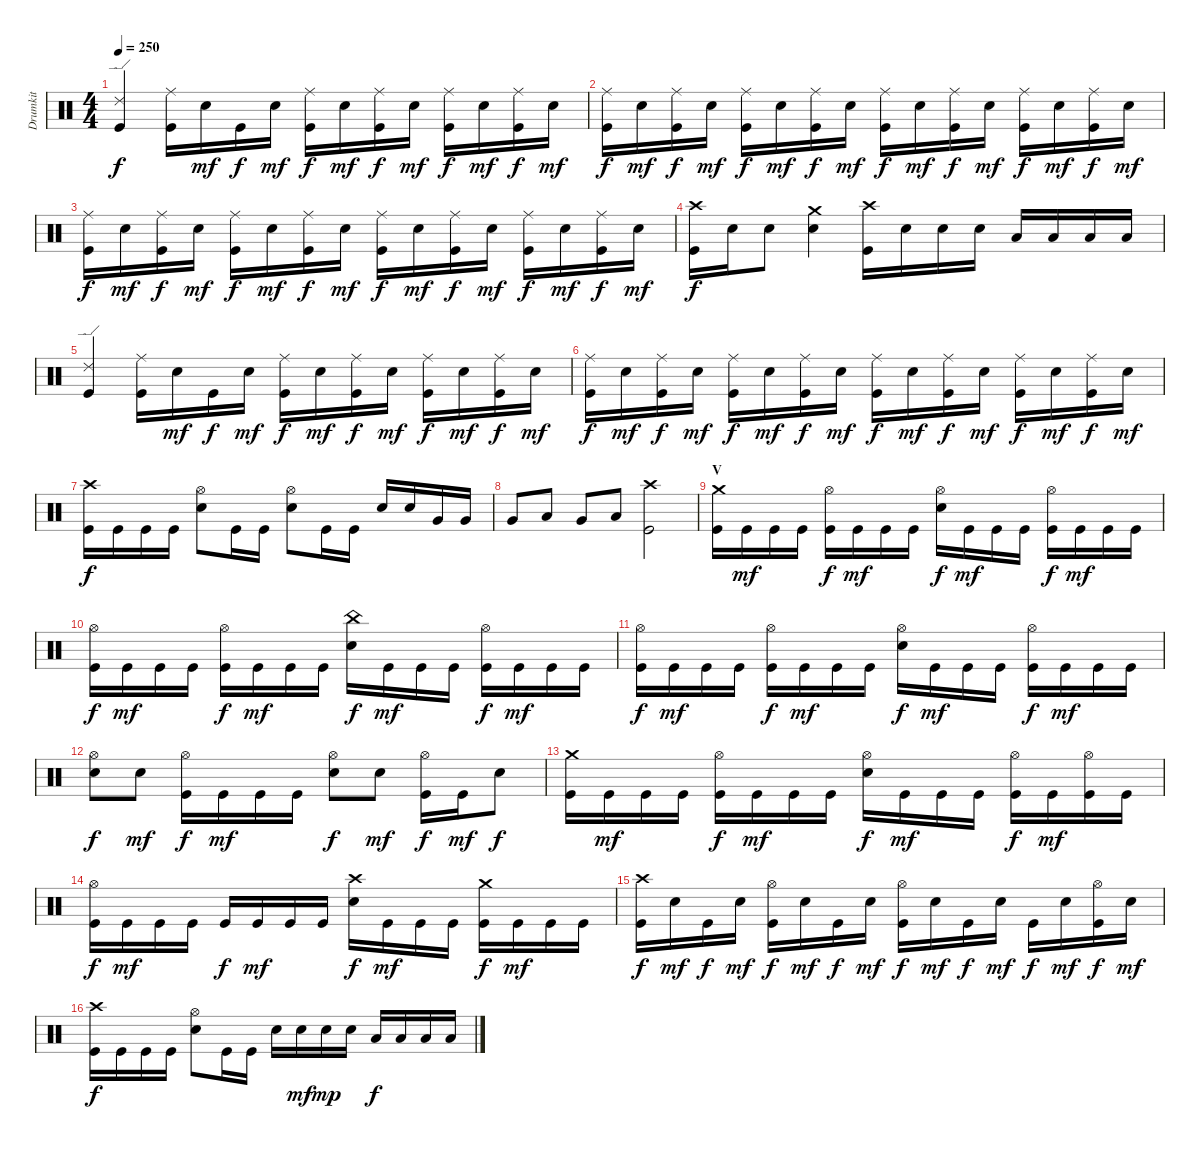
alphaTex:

\track ("Drumkit" "Drumkit") {instrument percussion}
\staff {score}
\articulation defaults
\ts (4 4)
\tempo 250
\clef neutral
\ks c
("Kick (hit)" "Ride (edge) 2").4{dy f} ("Kick (hit)" "Ride (middle)").16 "Snare (hit) 2".16{dy mf} "Kick (hit)".16{dy f} "Snare (hit) 2".16{dy mf} ("Kick (hit)" "Ride (middle)").16{dy f} "Snare (hit) 2".16{dy mf} ("Kick (hit)" "Ride (middle)").16{dy f} "Snare (hit) 2".16{dy mf} ("Kick (hit)" "Ride (middle)").16{dy f} "Snare (hit) 2".16{dy mf} ("Kick (hit)" "Ride (middle)").16{dy f} "Snare (hit) 2".16{dy mf} |
("Kick (hit)" "Ride (middle)").16{dy f} "Snare (hit) 2".16{dy mf} ("Kick (hit)" "Ride (middle)").16{dy f} "Snare (hit) 2".16{dy mf} ("Kick (hit)" "Ride (middle)").16{dy f} "Snare (hit) 2".16{dy mf} ("Kick (hit)" "Ride (middle)").16{dy f} "Snare (hit) 2".16{dy mf} ("Kick (hit)" "Ride (middle)").16{dy f} "Snare (hit) 2".16{dy mf} ("Kick (hit)" "Ride (middle)").16{dy f} "Snare (hit) 2".16{dy mf} ("Kick (hit)" "Ride (middle)").16{dy f} "Snare (hit) 2".16{dy mf} ("Kick (hit)" "Ride (middle)").16{dy f} "Snare (hit) 2".16{dy mf} |
("Kick (hit)" "Ride (middle)").16{dy f} "Snare (hit) 2".16{dy mf} ("Kick (hit)" "Ride (middle)").16{dy f} "Snare (hit) 2".16{dy mf} ("Kick (hit)" "Ride (middle)").16{dy f} "Snare (hit) 2".16{dy mf} ("Kick (hit)" "Ride (middle)").16{dy f} "Snare (hit) 2".16{dy mf} ("Kick (hit)" "Ride (middle)").16{dy f} "Snare (hit) 2".16{dy mf} ("Kick (hit)" "Ride (middle)").16{dy f} "Snare (hit) 2".16{dy mf} ("Kick (hit)" "Ride (middle)").16{dy f} "Snare (hit) 2".16{dy mf} ("Kick (hit)" "Ride (middle)").16{dy f} "Snare (hit) 2".16{dy mf} |
("Kick (hit)" "Crash high (hit)").16{dy f} "Snare (hit) 2".16 "Snare (hit) 2".8 ("Snare (hit) 2" "Crash medium (hit)").4 ("Kick (hit)" "Crash high (hit)").16 "Snare (hit) 2".16 "Snare (hit) 2".16 "Snare (hit) 2".16 "Low Tom (hit)".16 "Low Tom (hit)".16 "Low Tom (hit)".16 "Low Tom (hit)".16 |
("Kick (hit)" "Ride (edge) 2").4 ("Kick (hit)" "Ride (middle)").16 "Snare (hit) 2".16{dy mf} "Kick (hit)".16{dy f} "Snare (hit) 2".16{dy mf} ("Kick (hit)" "Ride (middle)").16{dy f} "Snare (hit) 2".16{dy mf} ("Kick (hit)" "Ride (middle)").16{dy f} "Snare (hit) 2".16{dy mf} ("Kick (hit)" "Ride (middle)").16{dy f} "Snare (hit) 2".16{dy mf} ("Kick (hit)" "Ride (middle)").16{dy f} "Snare (hit) 2".16{dy mf} |
("Kick (hit)" "Ride (middle)").16{dy f} "Snare (hit) 2".16{dy mf} ("Kick (hit)" "Ride (middle)").16{dy f} "Snare (hit) 2".16{dy mf} ("Kick (hit)" "Ride (middle)").16{dy f} "Snare (hit) 2".16{dy mf} ("Kick (hit)" "Ride (middle)").16{dy f} "Snare (hit) 2".16{dy mf} ("Kick (hit)" "Ride (middle)").16{dy f} "Snare (hit) 2".16{dy mf} ("Kick (hit)" "Ride (middle)").16{dy f} "Snare (hit) 2".16{dy mf} ("Kick (hit)" "Ride (middle)").16{dy f} "Snare (hit) 2".16{dy mf} ("Kick (hit)" "Ride (middle)").16{dy f} "Snare (hit) 2".16{dy mf} |
("Kick (hit)" "Crash high (hit)").16{dy f} "Kick (hit)".16 "Kick (hit)".16 "Kick (hit)".16 ("Snare (hit) 2" "Hi-Hat (open)").8 "Kick (hit)".16 "Kick (hit)".16 ("Snare (hit) 2" "Hi-Hat (open)").8 "Kick (hit)".16 "Kick (hit)".16 "Snare (hit) 2".16 "Snare (hit) 2".16 "Very Low Tom (hit)".16 "Very Low Tom (hit)".16 |
"Very Low Tom (hit)".8 "Low Tom (hit)".8 "Very Low Tom (hit)".8 "Low Floor Tom (hit)".8 ("Kick (hit)" "Crash high (hit)").2 |
\section ("" "V")
("Kick (hit)" "Crash medium (hit)").16 "Kick (hit)".16{dy mf} "Kick (hit)".16 "Kick (hit)".16 ("Kick (hit)" "Hi-Hat (open)").16{dy f} "Kick (hit)".16{dy mf} "Kick (hit)".16 "Kick (hit)".16 ("Snare (hit) 2" "Hi-Hat (open)").16{dy f} "Kick (hit)".16{dy mf} "Kick (hit)".16 "Kick (hit)".16 ("Kick (hit)" "Hi-Hat (open)").16{dy f} "Kick (hit)".16{dy mf} "Kick (hit)".16 "Kick (hit)".16 |
("Kick (hit)" "Hi-Hat (open)").16{dy f} "Kick (hit)".16{dy mf} "Kick (hit)".16 "Kick (hit)".16 ("Kick (hit)" "Hi-Hat (open)").16{dy f} "Kick (hit)".16{dy mf} "Kick (hit)".16 "Kick (hit)".16 ("Snare (hit) 2" "China (hit)").16{dy f} "Kick (hit)".16{dy mf} "Kick (hit)".16 "Kick (hit)".16 ("Kick (hit)" "Hi-Hat (open)").16{dy f} "Kick (hit)".16{dy mf} "Kick (hit)".16 "Kick (hit)".16 |
("Kick (hit)" "Hi-Hat (open)").16{dy f} "Kick (hit)".16{dy mf} "Kick (hit)".16 "Kick (hit)".16 ("Kick (hit)" "Hi-Hat (open)").16{dy f} "Kick (hit)".16{dy mf} "Kick (hit)".16 "Kick (hit)".16 ("Snare (hit) 2" "Hi-Hat (open)").16{dy f} "Kick (hit)".16{dy mf} "Kick (hit)".16 "Kick (hit)".16 ("Kick (hit)" "Hi-Hat (open)").16{dy f} "Kick (hit)".16{dy mf} "Kick (hit)".16 "Kick (hit)".16 |
("Snare (hit) 2" "Hi-Hat (open)").8{dy f} "Snare (hit) 2".8{dy mf} ("Kick (hit)" "Hi-Hat (open)").16{dy f} "Kick (hit)".16{dy mf} "Kick (hit)".16 "Kick (hit)".16 ("Snare (hit) 2" "Hi-Hat (open)").8{dy f} "Snare (hit) 2".8{dy mf} ("Kick (hit)" "Hi-Hat (open)").16{dy f} "Kick (hit)".16{dy mf} "Snare (hit) 2".8{dy f} |
("Kick (hit)" "Crash medium (hit)").16 "Kick (hit)".16{dy mf} "Kick (hit)".16 "Kick (hit)".16 ("Kick (hit)" "Hi-Hat (open)").16{dy f} "Kick (hit)".16{dy mf} "Kick (hit)".16 "Kick (hit)".16 ("Snare (hit) 2" "Hi-Hat (open)").16{dy f} "Kick (hit)".16{dy mf} "Kick (hit)".16 "Kick (hit)".16 ("Kick (hit)" "Hi-Hat (open)").16{dy f} "Kick (hit)".16{dy mf} ("Kick (hit)" "Hi-Hat (open)").16 "Kick (hit)".16 |
("Kick (hit)" "Hi-Hat (open)").16{dy f} "Kick (hit)".16{dy mf} "Kick (hit)".16 "Kick (hit)".16 "Kick (hit)".16{dy f} "Kick (hit)".16{dy mf} "Kick (hit)".16 "Kick (hit)".16 ("Snare (hit) 2" "Crash high (hit)").16{dy f} "Kick (hit)".16{dy mf} "Kick (hit)".16 "Kick (hit)".16 ("Kick (hit)" "Crash medium (hit)").16{dy f} "Kick (hit)".16{dy mf} "Kick (hit)".16 "Kick (hit)".16 |
("Kick (hit)" "Crash high (hit)").16{dy f} "Snare (hit) 2".16{dy mf} "Kick (hit)".16{dy f} "Snare (hit) 2".16{dy mf} ("Kick (hit)" "Hi-Hat (open)").16{dy f} "Snare (hit) 2".16{dy mf} "Kick (hit)".16{dy f} "Snare (hit) 2".16{dy mf} ("Kick (hit)" "Hi-Hat (open)").16{dy f} "Snare (hit) 2".16{dy mf} "Kick (hit)".16{dy f} "Snare (hit) 2".16{dy mf} "Kick (hit)".16{dy f} "Snare (hit) 2".16{dy mf} ("Kick (hit)" "Hi-Hat (open)").16{dy f} "Snare (hit) 2".16{dy mf} |
("Kick (hit)" "Crash high (hit)").16{dy f} "Kick (hit)".16 "Kick (hit)".16 "Kick (hit)".16 ("Snare (hit) 2" "Hi-Hat (open)").8 "Kick (hit)".16 "Kick (hit)".16 "Snare (hit) 2".16 "Snare (hit) 2".16{dy mf} "Snare (hit) 2".16{dy mp} "Snare (hit) 2".16 "Low Floor Tom (hit)".16{dy f} "Low Floor Tom (hit)".16 "Low Floor Tom (hit)".16 "Low Floor Tom (hit)".16
